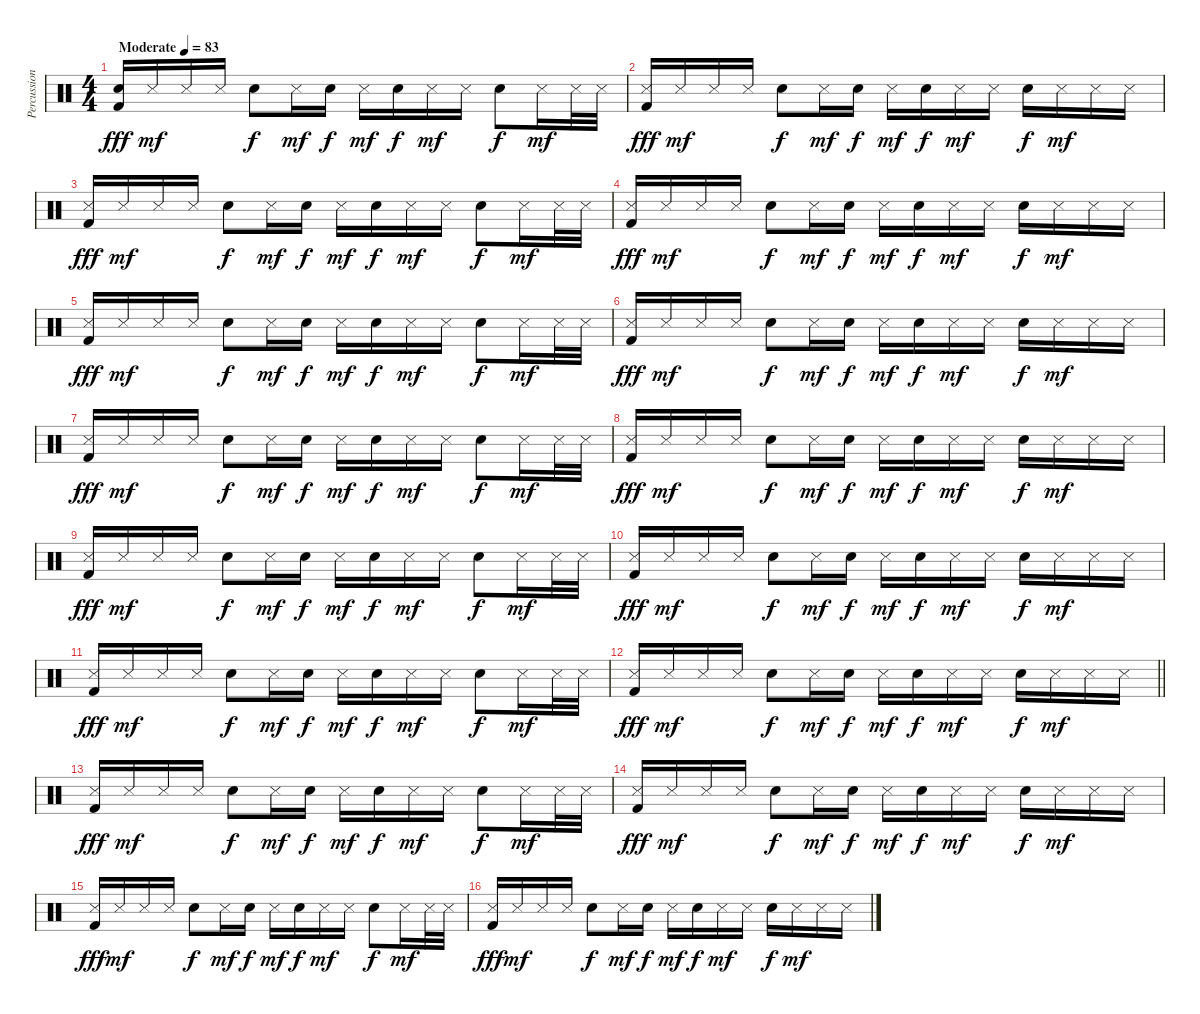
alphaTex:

\track ("Percussion" "Percussion") {instrument percussion}
\staff {score}
\articulation defaults
\ts (4 4)
\tempo (83 "Moderate")
\clef neutral
\ks c
("Electric Snare (hit)" "Kick (hit) 2").16{dy fff} "Snare (side stick) 3".16{dy mf} "Snare (side stick) 3".16 "Snare (side stick) 3".16 "Electric Snare (hit)".8{dy f} "Snare (side stick) 3".16{dy mf} "Electric Snare (hit)".16{dy f} "Snare (side stick) 3".16{dy mf} "Electric Snare (hit)".16{dy f} "Snare (side stick) 3".16{dy mf} "Snare (side stick) 3".16 "Electric Snare (hit)".8{dy f} "Snare (side stick) 3".16{dy mf} "Snare (side stick) 3".32 "Snare (side stick) 3".32 |
("Snare (side stick) 3" "Kick (hit) 2").16{dy fff} "Snare (side stick) 3".16{dy mf} "Snare (side stick) 3".16 "Snare (side stick) 3".16 "Electric Snare (hit)".8{dy f} "Snare (side stick) 3".16{dy mf} "Electric Snare (hit)".16{dy f} "Snare (side stick) 3".16{dy mf} "Electric Snare (hit)".16{dy f} "Snare (side stick) 3".16{dy mf} "Snare (side stick) 3".16 "Electric Snare (hit)".16{dy f} "Snare (side stick) 3".16{dy mf} "Snare (side stick) 3".16 "Snare (side stick) 3".16 |
("Snare (side stick) 3" "Kick (hit) 2").16{dy fff} "Snare (side stick) 3".16{dy mf} "Snare (side stick) 3".16 "Snare (side stick) 3".16 "Electric Snare (hit)".8{dy f} "Snare (side stick) 3".16{dy mf} "Electric Snare (hit)".16{dy f} "Snare (side stick) 3".16{dy mf} "Electric Snare (hit)".16{dy f} "Snare (side stick) 3".16{dy mf} "Snare (side stick) 3".16 "Electric Snare (hit)".8{dy f} "Snare (side stick) 3".16{dy mf} "Snare (side stick) 3".32 "Snare (side stick) 3".32 |
("Snare (side stick) 3" "Kick (hit) 2").16{dy fff} "Snare (side stick) 3".16{dy mf} "Snare (side stick) 3".16 "Snare (side stick) 3".16 "Electric Snare (hit)".8{dy f} "Snare (side stick) 3".16{dy mf} "Electric Snare (hit)".16{dy f} "Snare (side stick) 3".16{dy mf} "Electric Snare (hit)".16{dy f} "Snare (side stick) 3".16{dy mf} "Snare (side stick) 3".16 "Electric Snare (hit)".16{dy f} "Snare (side stick) 3".16{dy mf} "Snare (side stick) 3".16 "Snare (side stick) 3".16 |
("Snare (side stick) 3" "Kick (hit) 2").16{dy fff} "Snare (side stick) 3".16{dy mf} "Snare (side stick) 3".16 "Snare (side stick) 3".16 "Electric Snare (hit)".8{dy f} "Snare (side stick) 3".16{dy mf} "Electric Snare (hit)".16{dy f} "Snare (side stick) 3".16{dy mf} "Electric Snare (hit)".16{dy f} "Snare (side stick) 3".16{dy mf} "Snare (side stick) 3".16 "Electric Snare (hit)".8{dy f} "Snare (side stick) 3".16{dy mf} "Snare (side stick) 3".32 "Snare (side stick) 3".32 |
("Snare (side stick) 3" "Kick (hit) 2").16{dy fff} "Snare (side stick) 3".16{dy mf} "Snare (side stick) 3".16 "Snare (side stick) 3".16 "Electric Snare (hit)".8{dy f} "Snare (side stick) 3".16{dy mf} "Electric Snare (hit)".16{dy f} "Snare (side stick) 3".16{dy mf} "Electric Snare (hit)".16{dy f} "Snare (side stick) 3".16{dy mf} "Snare (side stick) 3".16 "Electric Snare (hit)".16{dy f} "Snare (side stick) 3".16{dy mf} "Snare (side stick) 3".16 "Snare (side stick) 3".16 |
("Snare (side stick) 3" "Kick (hit) 2").16{dy fff} "Snare (side stick) 3".16{dy mf} "Snare (side stick) 3".16 "Snare (side stick) 3".16 "Electric Snare (hit)".8{dy f} "Snare (side stick) 3".16{dy mf} "Electric Snare (hit)".16{dy f} "Snare (side stick) 3".16{dy mf} "Electric Snare (hit)".16{dy f} "Snare (side stick) 3".16{dy mf} "Snare (side stick) 3".16 "Electric Snare (hit)".8{dy f} "Snare (side stick) 3".16{dy mf} "Snare (side stick) 3".32 "Snare (side stick) 3".32 |
("Snare (side stick) 3" "Kick (hit) 2").16{dy fff} "Snare (side stick) 3".16{dy mf} "Snare (side stick) 3".16 "Snare (side stick) 3".16 "Electric Snare (hit)".8{dy f} "Snare (side stick) 3".16{dy mf} "Electric Snare (hit)".16{dy f} "Snare (side stick) 3".16{dy mf} "Electric Snare (hit)".16{dy f} "Snare (side stick) 3".16{dy mf} "Snare (side stick) 3".16 "Electric Snare (hit)".16{dy f} "Snare (side stick) 3".16{dy mf} "Snare (side stick) 3".16 "Snare (side stick) 3".16 |
("Snare (side stick) 3" "Kick (hit) 2").16{dy fff} "Snare (side stick) 3".16{dy mf} "Snare (side stick) 3".16 "Snare (side stick) 3".16 "Electric Snare (hit)".8{dy f} "Snare (side stick) 3".16{dy mf} "Electric Snare (hit)".16{dy f} "Snare (side stick) 3".16{dy mf} "Electric Snare (hit)".16{dy f} "Snare (side stick) 3".16{dy mf} "Snare (side stick) 3".16 "Electric Snare (hit)".8{dy f} "Snare (side stick) 3".16{dy mf} "Snare (side stick) 3".32 "Snare (side stick) 3".32 |
("Snare (side stick) 3" "Kick (hit) 2").16{dy fff} "Snare (side stick) 3".16{dy mf} "Snare (side stick) 3".16 "Snare (side stick) 3".16 "Electric Snare (hit)".8{dy f} "Snare (side stick) 3".16{dy mf} "Electric Snare (hit)".16{dy f} "Snare (side stick) 3".16{dy mf} "Electric Snare (hit)".16{dy f} "Snare (side stick) 3".16{dy mf} "Snare (side stick) 3".16 "Electric Snare (hit)".16{dy f} "Snare (side stick) 3".16{dy mf} "Snare (side stick) 3".16 "Snare (side stick) 3".16 |
("Snare (side stick) 3" "Kick (hit) 2").16{dy fff} "Snare (side stick) 3".16{dy mf} "Snare (side stick) 3".16 "Snare (side stick) 3".16 "Electric Snare (hit)".8{dy f} "Snare (side stick) 3".16{dy mf} "Electric Snare (hit)".16{dy f} "Snare (side stick) 3".16{dy mf} "Electric Snare (hit)".16{dy f} "Snare (side stick) 3".16{dy mf} "Snare (side stick) 3".16 "Electric Snare (hit)".8{dy f} "Snare (side stick) 3".16{dy mf} "Snare (side stick) 3".32 "Snare (side stick) 3".32 |
\barLineRight lightlight
("Snare (side stick) 3" "Kick (hit) 2").16{dy fff} "Snare (side stick) 3".16{dy mf} "Snare (side stick) 3".16 "Snare (side stick) 3".16 "Electric Snare (hit)".8{dy f} "Snare (side stick) 3".16{dy mf} "Electric Snare (hit)".16{dy f} "Snare (side stick) 3".16{dy mf} "Electric Snare (hit)".16{dy f} "Snare (side stick) 3".16{dy mf} "Snare (side stick) 3".16 "Electric Snare (hit)".16{dy f} "Snare (side stick) 3".16{dy mf} "Snare (side stick) 3".16 "Snare (side stick) 3".16 |
("Snare (side stick) 3" "Kick (hit) 2").16{dy fff} "Snare (side stick) 3".16{dy mf} "Snare (side stick) 3".16 "Snare (side stick) 3".16 "Electric Snare (hit)".8{dy f} "Snare (side stick) 3".16{dy mf} "Electric Snare (hit)".16{dy f} "Snare (side stick) 3".16{dy mf} "Electric Snare (hit)".16{dy f} "Snare (side stick) 3".16{dy mf} "Snare (side stick) 3".16 "Electric Snare (hit)".8{dy f} "Snare (side stick) 3".16{dy mf} "Snare (side stick) 3".32 "Snare (side stick) 3".32 |
("Snare (side stick) 3" "Kick (hit) 2").16{dy fff} "Snare (side stick) 3".16{dy mf} "Snare (side stick) 3".16 "Snare (side stick) 3".16 "Electric Snare (hit)".8{dy f} "Snare (side stick) 3".16{dy mf} "Electric Snare (hit)".16{dy f} "Snare (side stick) 3".16{dy mf} "Electric Snare (hit)".16{dy f} "Snare (side stick) 3".16{dy mf} "Snare (side stick) 3".16 "Electric Snare (hit)".16{dy f} "Snare (side stick) 3".16{dy mf} "Snare (side stick) 3".16 "Snare (side stick) 3".16 |
("Snare (side stick) 3" "Kick (hit) 2").16{dy fff} "Snare (side stick) 3".16{dy mf} "Snare (side stick) 3".16 "Snare (side stick) 3".16 "Electric Snare (hit)".8{dy f} "Snare (side stick) 3".16{dy mf} "Electric Snare (hit)".16{dy f} "Snare (side stick) 3".16{dy mf} "Electric Snare (hit)".16{dy f} "Snare (side stick) 3".16{dy mf} "Snare (side stick) 3".16 "Electric Snare (hit)".8{dy f} "Snare (side stick) 3".16{dy mf} "Snare (side stick) 3".32 "Snare (side stick) 3".32 |
("Snare (side stick) 3" "Kick (hit) 2").16{dy fff} "Snare (side stick) 3".16{dy mf} "Snare (side stick) 3".16 "Snare (side stick) 3".16 "Electric Snare (hit)".8{dy f} "Snare (side stick) 3".16{dy mf} "Electric Snare (hit)".16{dy f} "Snare (side stick) 3".16{dy mf} "Electric Snare (hit)".16{dy f} "Snare (side stick) 3".16{dy mf} "Snare (side stick) 3".16 "Electric Snare (hit)".16{dy f} "Snare (side stick) 3".16{dy mf} "Snare (side stick) 3".16 "Snare (side stick) 3".16
